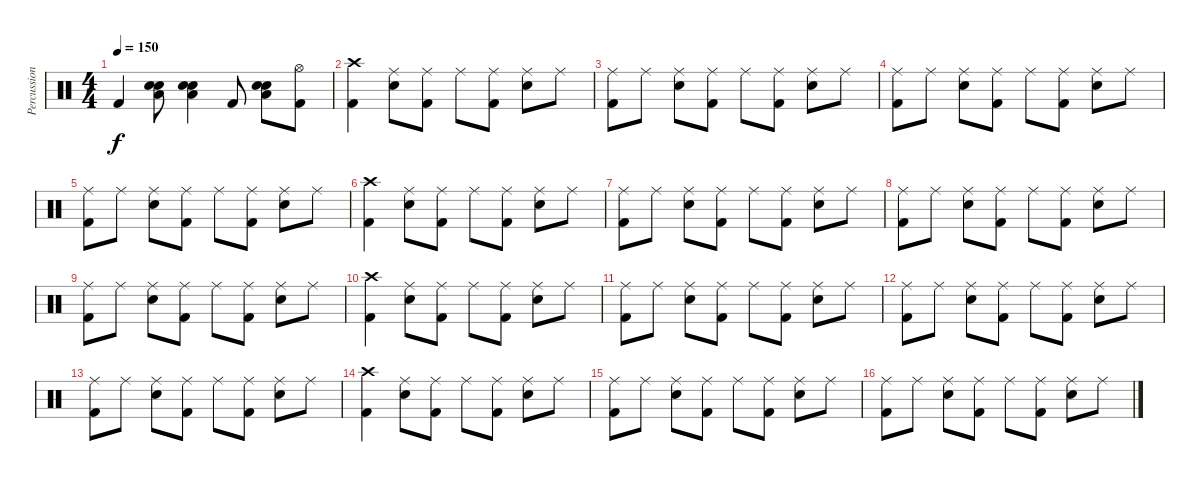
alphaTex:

\track ("Percussions" "Percussion") {instrument percussion}
\staff {score}
\articulation defaults
\ts (4 4)
\tempo 150
\clef neutral
\ks c "Kick (hit) 2".4{dy f}
("Hand Clap (hit)" "Snare (hit) 2" "Low Floor Tom (hit)").8 ("Hand Clap (hit)" "Snare (hit) 2" "Low Floor Tom (hit)").4 "Kick (hit) 2".8 ("Hand Clap (hit)" "Snare (hit) 2" "Low Floor Tom (hit)").8 ("Hi-Hat (open)" "Kick (hit) 2").8 |
("Crash high (hit)" "Kick (hit) 2").4 ("Ride (middle)" "Snare (hit) 2").8 ("Ride (middle)" "Kick (hit) 2").8 "Ride (middle)".8 ("Ride (middle)" "Kick (hit) 2").8 ("Ride (middle)" "Snare (hit) 2").8 "Ride (middle)".8 |
("Ride (middle)" "Kick (hit) 2").8 "Ride (middle)".8 ("Ride (middle)" "Snare (hit) 2").8 ("Ride (middle)" "Kick (hit) 2").8 "Ride (middle)".8 ("Ride (middle)" "Kick (hit) 2").8 ("Ride (middle)" "Snare (hit) 2").8 "Ride (middle)".8 |
("Ride (middle)" "Kick (hit) 2").8 "Ride (middle)".8 ("Ride (middle)" "Snare (hit) 2").8 ("Ride (middle)" "Kick (hit) 2").8 "Ride (middle)".8 ("Ride (middle)" "Kick (hit) 2").8 ("Ride (middle)" "Snare (hit) 2").8 "Ride (middle)".8 |
("Ride (middle)" "Kick (hit) 2").8 "Ride (middle)".8 ("Ride (middle)" "Snare (hit) 2").8 ("Ride (middle)" "Kick (hit) 2").8 "Ride (middle)".8 ("Ride (middle)" "Kick (hit) 2").8 ("Ride (middle)" "Snare (hit) 2").8 "Ride (middle)".8 |
("Crash high (hit)" "Kick (hit) 2").4 ("Ride (middle)" "Snare (hit) 2").8 ("Ride (middle)" "Kick (hit) 2").8 "Ride (middle)".8 ("Ride (middle)" "Kick (hit) 2").8 ("Ride (middle)" "Snare (hit) 2").8 "Ride (middle)".8 |
("Ride (middle)" "Kick (hit) 2").8 "Ride (middle)".8 ("Ride (middle)" "Snare (hit) 2").8 ("Ride (middle)" "Kick (hit) 2").8 "Ride (middle)".8 ("Ride (middle)" "Kick (hit) 2").8 ("Ride (middle)" "Snare (hit) 2").8 "Ride (middle)".8 |
("Ride (middle)" "Kick (hit) 2").8 "Ride (middle)".8 ("Ride (middle)" "Snare (hit) 2").8 ("Ride (middle)" "Kick (hit) 2").8 "Ride (middle)".8 ("Ride (middle)" "Kick (hit) 2").8 ("Ride (middle)" "Snare (hit) 2").8 "Ride (middle)".8 |
("Ride (middle)" "Kick (hit) 2").8 "Ride (middle)".8 ("Ride (middle)" "Snare (hit) 2").8 ("Ride (middle)" "Kick (hit) 2").8 "Ride (middle)".8 ("Ride (middle)" "Kick (hit) 2").8 ("Ride (middle)" "Snare (hit) 2").8 "Ride (middle)".8 |
("Crash high (hit)" "Kick (hit) 2").4 ("Ride (middle)" "Snare (hit) 2").8 ("Ride (middle)" "Kick (hit) 2").8 "Ride (middle)".8 ("Ride (middle)" "Kick (hit) 2").8 ("Ride (middle)" "Snare (hit) 2").8 "Ride (middle)".8 |
("Ride (middle)" "Kick (hit) 2").8 "Ride (middle)".8 ("Ride (middle)" "Snare (hit) 2").8 ("Ride (middle)" "Kick (hit) 2").8 "Ride (middle)".8 ("Ride (middle)" "Kick (hit) 2").8 ("Ride (middle)" "Snare (hit) 2").8 "Ride (middle)".8 |
("Ride (middle)" "Kick (hit) 2").8 "Ride (middle)".8 ("Ride (middle)" "Snare (hit) 2").8 ("Ride (middle)" "Kick (hit) 2").8 "Ride (middle)".8 ("Ride (middle)" "Kick (hit) 2").8 ("Ride (middle)" "Snare (hit) 2").8 "Ride (middle)".8 |
("Ride (middle)" "Kick (hit) 2").8 "Ride (middle)".8 ("Ride (middle)" "Snare (hit) 2").8 ("Ride (middle)" "Kick (hit) 2").8 "Ride (middle)".8 ("Ride (middle)" "Kick (hit) 2").8 ("Ride (middle)" "Snare (hit) 2").8 "Ride (middle)".8 |
("Crash high (hit)" "Kick (hit) 2").4 ("Ride (middle)" "Snare (hit) 2").8 ("Ride (middle)" "Kick (hit) 2").8 "Ride (middle)".8 ("Ride (middle)" "Kick (hit) 2").8 ("Ride (middle)" "Snare (hit) 2").8 "Ride (middle)".8 |
("Ride (middle)" "Kick (hit) 2").8 "Ride (middle)".8 ("Ride (middle)" "Snare (hit) 2").8 ("Ride (middle)" "Kick (hit) 2").8 "Ride (middle)".8 ("Ride (middle)" "Kick (hit) 2").8 ("Ride (middle)" "Snare (hit) 2").8 "Ride (middle)".8 |
("Ride (middle)" "Kick (hit) 2").8 "Ride (middle)".8 ("Ride (middle)" "Snare (hit) 2").8 ("Ride (middle)" "Kick (hit) 2").8 "Ride (middle)".8 ("Ride (middle)" "Kick (hit) 2").8 ("Ride (middle)" "Snare (hit) 2").8 "Ride (middle)".8
